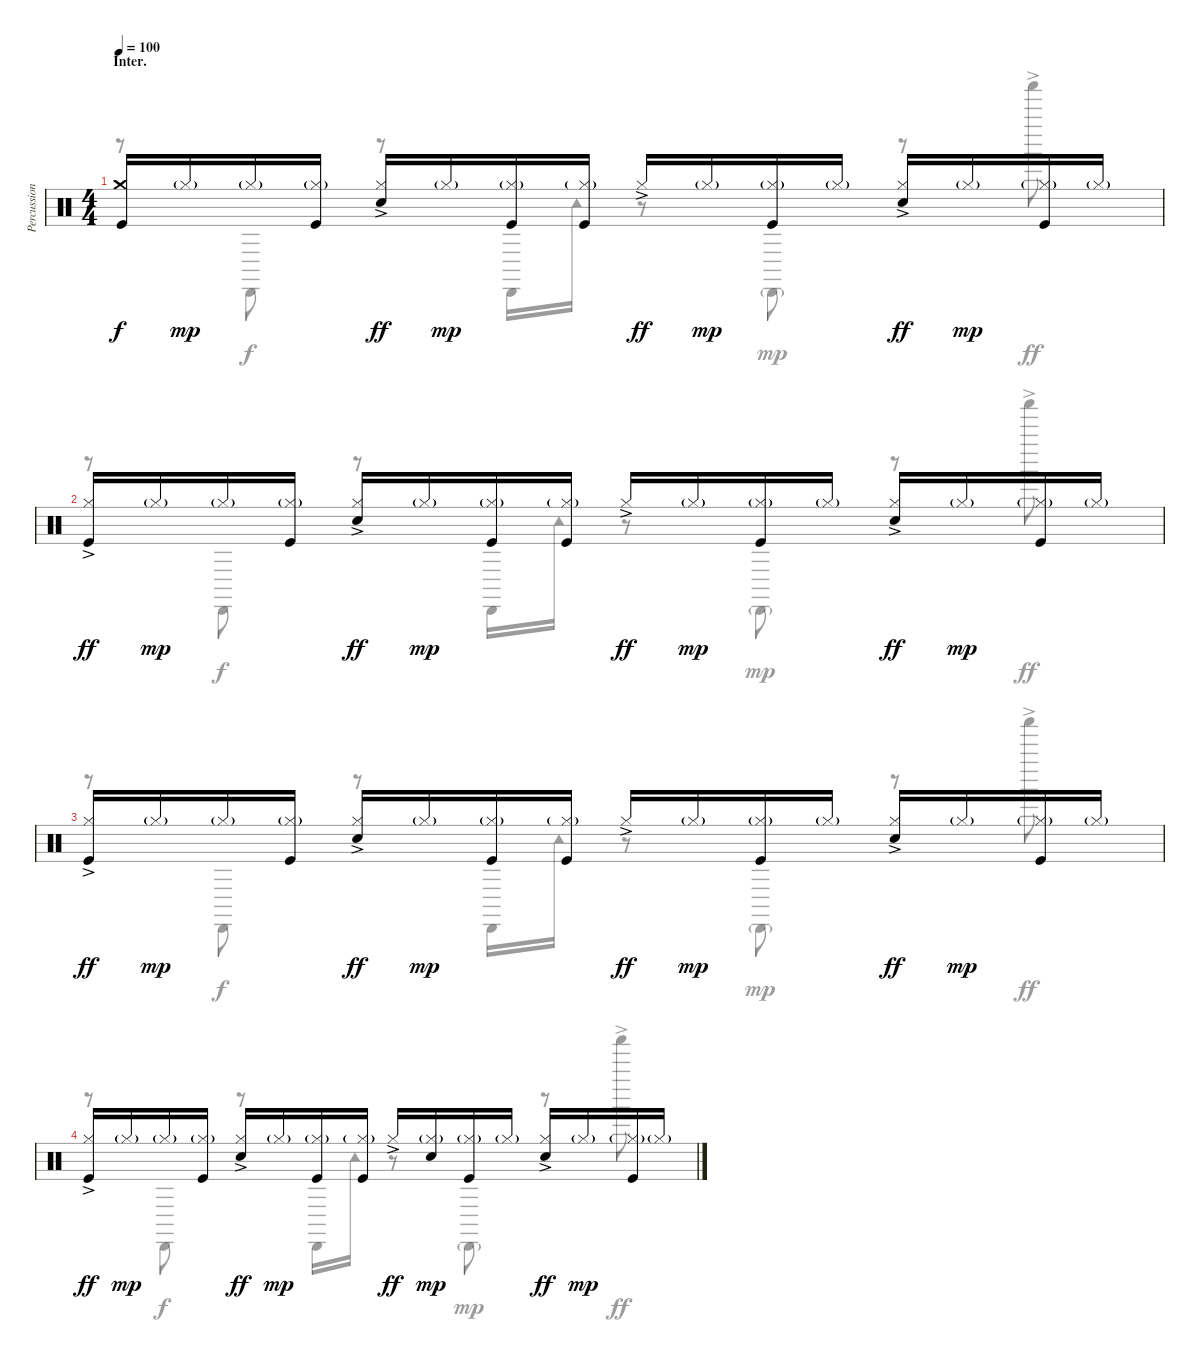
\track ("Percussions" "Percussion") {instrument percussion}
\staff {score}
\articulation defaults
\voice
\ts (4 4)
\section ("" "Inter.")
\tempo 100
\clef neutral
\ks c
("Kick (hit)" "Crash medium (hit)").16{dy f} "Hi-Hat (closed)"{g}.16{dy mp} "Hi-Hat (closed)"{g}.16 ("Kick (hit)" "Hi-Hat (closed)"{g}).16 ("Electric Snare (hit)" "Hi-Hat (closed)"{ac}).16{dy ff} "Hi-Hat (closed)"{g}.16{dy mp} ("Kick (hit)" "Hi-Hat (closed)"{g}).16 ("Kick (hit)" "Hi-Hat (closed)"{g}).16 "Hi-Hat (closed)"{ac}.16{dy ff} "Hi-Hat (closed)"{g}.16{dy mp} ("Kick (hit)" "Hi-Hat (closed)"{g}).16 "Hi-Hat (closed)"{g}.16 ("Snare (hit) 2" "Hi-Hat (closed)"{ac}).16{dy ff} "Hi-Hat (closed)"{g}.16{dy mp} ("Kick (hit)" "Hi-Hat (closed)"{g}).16 "Hi-Hat (closed)"{g}.16 |
("Kick (hit)" "Hi-Hat (closed)"{ac}).16{dy ff} "Hi-Hat (closed)"{g}.16{dy mp} "Hi-Hat (closed)"{g}.16 ("Kick (hit)" "Hi-Hat (closed)"{g}).16 ("Electric Snare (hit)" "Hi-Hat (closed)"{ac}).16{dy ff} "Hi-Hat (closed)"{g}.16{dy mp} ("Kick (hit)" "Hi-Hat (closed)"{g}).16 ("Kick (hit)" "Hi-Hat (closed)"{g}).16 "Hi-Hat (closed)"{ac}.16{dy ff} "Hi-Hat (closed)"{g}.16{dy mp} ("Kick (hit)" "Hi-Hat (closed)"{g}).16 "Hi-Hat (closed)"{g}.16 ("Snare (hit) 2" "Hi-Hat (closed)"{ac}).16{dy ff} "Hi-Hat (closed)"{g}.16{dy mp} ("Kick (hit)" "Hi-Hat (closed)"{g}).16 "Hi-Hat (closed)"{g}.16 |
("Kick (hit)" "Hi-Hat (closed)"{ac}).16{dy ff} "Hi-Hat (closed)"{g}.16{dy mp} "Hi-Hat (closed)"{g}.16 ("Kick (hit)" "Hi-Hat (closed)"{g}).16 ("Electric Snare (hit)" "Hi-Hat (closed)"{ac}).16{dy ff} "Hi-Hat (closed)"{g}.16{dy mp} ("Kick (hit)" "Hi-Hat (closed)"{g}).16 ("Kick (hit)" "Hi-Hat (closed)"{g}).16 "Hi-Hat (closed)"{ac}.16{dy ff} "Hi-Hat (closed)"{g}.16{dy mp} ("Kick (hit)" "Hi-Hat (closed)"{g}).16 "Hi-Hat (closed)"{g}.16 ("Snare (hit) 2" "Hi-Hat (closed)"{ac}).16{dy ff} "Hi-Hat (closed)"{g}.16{dy mp} ("Kick (hit)" "Hi-Hat (closed)"{g}).16 "Hi-Hat (closed)"{g}.16 |
("Kick (hit)" "Hi-Hat (closed)"{ac}).16{dy ff} "Hi-Hat (closed)"{g}.16{dy mp} "Hi-Hat (closed)"{g}.16 ("Kick (hit)" "Hi-Hat (closed)"{g}).16 ("Electric Snare (hit)" "Hi-Hat (closed)"{ac}).16{dy ff} "Hi-Hat (closed)"{g}.16{dy mp} ("Kick (hit)" "Hi-Hat (closed)"{g}).16 ("Kick (hit)" "Hi-Hat (closed)"{g}).16 "Hi-Hat (closed)"{ac}.16{dy ff} ("Electric Snare (hit)" "Hi-Hat (closed)"{g}).16{dy mp} ("Kick (hit)" "Hi-Hat (closed)"{g}).16 "Hi-Hat (closed)"{g}.16 ("Snare (hit) 2" "Hi-Hat (closed)"{ac}).16{dy ff} "Hi-Hat (closed)"{g}.16{dy mp} ("Kick (hit)" "Hi-Hat (closed)"{g}).16 "Hi-Hat (closed)"{g}.16
\voice
\clef neutral
\ottava regular
\simile none
\ks c
r.8{dy ff} "Cabasa (hit)".8{dy f} r.8 "Cabasa (hit)".16 "Tambourine (hit)".16 r.8 "Cabasa (hit)"{g}.8{dy mp} r.8 "Shaker (hit)"{ac}.8{dy ff} |
r.8 "Cabasa (hit)".8{dy f} r.8 "Cabasa (hit)".16 "Tambourine (hit)".16 r.8 "Cabasa (hit)"{g}.8{dy mp} r.8 "Shaker (hit)"{ac}.8{dy ff} |
r.8 "Cabasa (hit)".8{dy f} r.8 "Cabasa (hit)".16 "Tambourine (hit)".16 r.8 "Cabasa (hit)"{g}.8{dy mp} r.8 "Shaker (hit)"{ac}.8{dy ff} |
r.8 "Cabasa (hit)".8{dy f} r.8 "Cabasa (hit)".16 "Tambourine (hit)".16 r.8 "Cabasa (hit)"{g}.8{dy mp} r.8 "Shaker (hit)"{ac}.8{dy ff}
